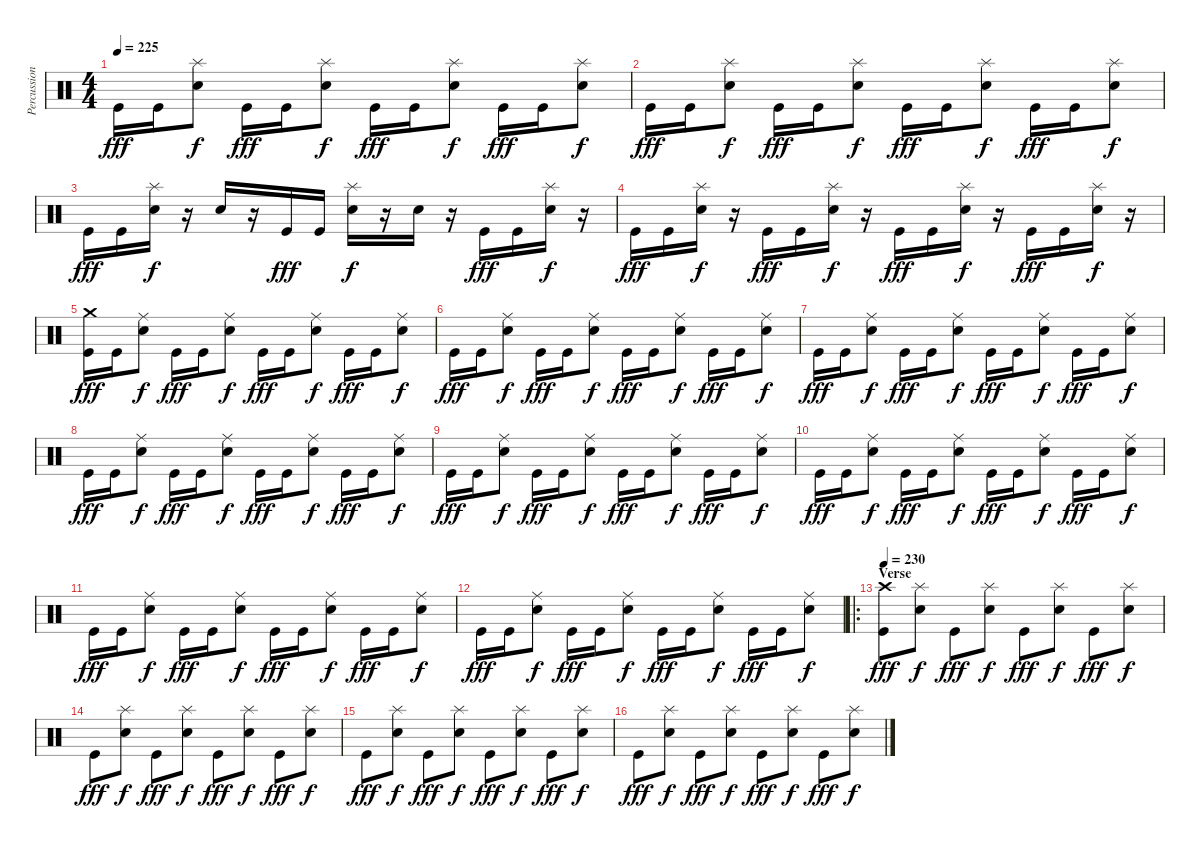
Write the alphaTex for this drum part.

\track ("Percussion" "Percussion") {instrument percussion}
\staff {score}
\articulation defaults
\ts (4 4)
\tempo 225
\clef neutral
\ks c "Kick (hit)".16{dy fff} "Kick (hit)".16
("Splash (hit)" "Electric Snare (hit)").8{dy f} "Kick (hit)".16{dy fff} "Kick (hit)".16 ("Splash (hit)" "Electric Snare (hit)").8{dy f} "Kick (hit)".16{dy fff} "Kick (hit)".16 ("Splash (hit)" "Electric Snare (hit)").8{dy f} "Kick (hit)".16{dy fff} "Kick (hit)".16 ("Splash (hit)" "Electric Snare (hit)").8{dy f} |
"Kick (hit)".16{dy fff} "Kick (hit)".16 ("Splash (hit)" "Electric Snare (hit)").8{dy f} "Kick (hit)".16{dy fff} "Kick (hit)".16 ("Splash (hit)" "Electric Snare (hit)").8{dy f} "Kick (hit)".16{dy fff} "Kick (hit)".16 ("Splash (hit)" "Electric Snare (hit)").8{dy f} "Kick (hit)".16{dy fff} "Kick (hit)".16 ("Splash (hit)" "Electric Snare (hit)").8{dy f} |
"Kick (hit)".16{dy fff} "Kick (hit)".16 ("Splash (hit)" "Electric Snare (hit)").16{dy f} r.16 "Electric Snare (hit)".16 r.16 "Kick (hit)".16{dy fff} "Kick (hit)".16 ("Splash (hit)" "Electric Snare (hit)").16{dy f} r.16 "Electric Snare (hit)".16 r.16 "Kick (hit)".16{dy fff} "Kick (hit)".16 ("Splash (hit)" "Electric Snare (hit)").16{dy f} r.16 |
"Kick (hit)".16{dy fff} "Kick (hit)".16 ("Splash (hit)" "Electric Snare (hit)").16{dy f} r.16 "Kick (hit)".16{dy fff} "Kick (hit)".16 ("Splash (hit)" "Electric Snare (hit)").16{dy f} r.16 "Kick (hit)".16{dy fff} "Kick (hit)".16 ("Splash (hit)" "Electric Snare (hit)").16{dy f} r.16 "Kick (hit)".16{dy fff} "Kick (hit)".16 ("Splash (hit)" "Electric Snare (hit)").16{dy f} r.16 |
("Crash medium (hit)" "Kick (hit)").16{dy fff} "Kick (hit)".16 ("Ride (middle)" "Electric Snare (hit)").8{dy f} "Kick (hit)".16{dy fff} "Kick (hit)".16 ("Ride (middle)" "Electric Snare (hit)").8{dy f} "Kick (hit)".16{dy fff} "Kick (hit)".16 ("Ride (middle)" "Electric Snare (hit)").8{dy f} "Kick (hit)".16{dy fff} "Kick (hit)".16 ("Ride (middle)" "Electric Snare (hit)").8{dy f} |
"Kick (hit)".16{dy fff} "Kick (hit)".16 ("Ride (middle)" "Electric Snare (hit)").8{dy f} "Kick (hit)".16{dy fff} "Kick (hit)".16 ("Ride (middle)" "Electric Snare (hit)").8{dy f} "Kick (hit)".16{dy fff} "Kick (hit)".16 ("Ride (middle)" "Electric Snare (hit)").8{dy f} "Kick (hit)".16{dy fff} "Kick (hit)".16 ("Ride (middle)" "Electric Snare (hit)").8{dy f} |
"Kick (hit)".16{dy fff} "Kick (hit)".16 ("Ride (middle)" "Electric Snare (hit)").8{dy f} "Kick (hit)".16{dy fff} "Kick (hit)".16 ("Ride (middle)" "Electric Snare (hit)").8{dy f} "Kick (hit)".16{dy fff} "Kick (hit)".16 ("Ride (middle)" "Electric Snare (hit)").8{dy f} "Kick (hit)".16{dy fff} "Kick (hit)".16 ("Ride (middle)" "Electric Snare (hit)").8{dy f} |
"Kick (hit)".16{dy fff} "Kick (hit)".16 ("Ride (middle)" "Electric Snare (hit)").8{dy f} "Kick (hit)".16{dy fff} "Kick (hit)".16 ("Ride (middle)" "Electric Snare (hit)").8{dy f} "Kick (hit)".16{dy fff} "Kick (hit)".16 ("Ride (middle)" "Electric Snare (hit)").8{dy f} "Kick (hit)".16{dy fff} "Kick (hit)".16 ("Ride (middle)" "Electric Snare (hit)").8{dy f} |
"Kick (hit)".16{dy fff} "Kick (hit)".16 ("Ride (middle)" "Electric Snare (hit)").8{dy f} "Kick (hit)".16{dy fff} "Kick (hit)".16 ("Ride (middle)" "Electric Snare (hit)").8{dy f} "Kick (hit)".16{dy fff} "Kick (hit)".16 ("Ride (middle)" "Electric Snare (hit)").8{dy f} "Kick (hit)".16{dy fff} "Kick (hit)".16 ("Ride (middle)" "Electric Snare (hit)").8{dy f} |
"Kick (hit)".16{dy fff} "Kick (hit)".16 ("Ride (middle)" "Electric Snare (hit)").8{dy f} "Kick (hit)".16{dy fff} "Kick (hit)".16 ("Ride (middle)" "Electric Snare (hit)").8{dy f} "Kick (hit)".16{dy fff} "Kick (hit)".16 ("Ride (middle)" "Electric Snare (hit)").8{dy f} "Kick (hit)".16{dy fff} "Kick (hit)".16 ("Ride (middle)" "Electric Snare (hit)").8{dy f} |
"Kick (hit)".16{dy fff} "Kick (hit)".16 ("Ride (middle)" "Electric Snare (hit)").8{dy f} "Kick (hit)".16{dy fff} "Kick (hit)".16 ("Ride (middle)" "Electric Snare (hit)").8{dy f} "Kick (hit)".16{dy fff} "Kick (hit)".16 ("Ride (middle)" "Electric Snare (hit)").8{dy f} "Kick (hit)".16{dy fff} "Kick (hit)".16 ("Ride (middle)" "Electric Snare (hit)").8{dy f} |
"Kick (hit)".16{dy fff} "Kick (hit)".16 ("Ride (middle)" "Electric Snare (hit)").8{dy f} "Kick (hit)".16{dy fff} "Kick (hit)".16 ("Ride (middle)" "Electric Snare (hit)").8{dy f} "Kick (hit)".16{dy fff} "Kick (hit)".16 ("Ride (middle)" "Electric Snare (hit)").8{dy f} "Kick (hit)".16{dy fff} "Kick (hit)".16 ("Ride (middle)" "Electric Snare (hit)").8{dy f} |
\ro
\section ("" "Verse")
\tempo 230
("Crash high (hit)" "Kick (hit)").8{dy fff} ("Splash (hit)" "Electric Snare (hit)").8{dy f} "Kick (hit)".8{dy fff} ("Splash (hit)" "Electric Snare (hit)").8{dy f} "Kick (hit)".8{dy fff} ("Splash (hit)" "Electric Snare (hit)").8{dy f} "Kick (hit)".8{dy fff} ("Splash (hit)" "Electric Snare (hit)").8{dy f} |
"Kick (hit)".8{dy fff} ("Splash (hit)" "Electric Snare (hit)").8{dy f} "Kick (hit)".8{dy fff} ("Splash (hit)" "Electric Snare (hit)").8{dy f} "Kick (hit)".8{dy fff} ("Splash (hit)" "Electric Snare (hit)").8{dy f} "Kick (hit)".8{dy fff} ("Splash (hit)" "Electric Snare (hit)").8{dy f} |
"Kick (hit)".8{dy fff} ("Splash (hit)" "Electric Snare (hit)").8{dy f} "Kick (hit)".8{dy fff} ("Splash (hit)" "Electric Snare (hit)").8{dy f} "Kick (hit)".8{dy fff} ("Splash (hit)" "Electric Snare (hit)").8{dy f} "Kick (hit)".8{dy fff} ("Splash (hit)" "Electric Snare (hit)").8{dy f} |
"Kick (hit)".8{dy fff} ("Splash (hit)" "Electric Snare (hit)").8{dy f} "Kick (hit)".8{dy fff} ("Splash (hit)" "Electric Snare (hit)").8{dy f} "Kick (hit)".8{dy fff} ("Splash (hit)" "Electric Snare (hit)").8{dy f} "Kick (hit)".8{dy fff} ("Splash (hit)" "Electric Snare (hit)").8{dy f}
